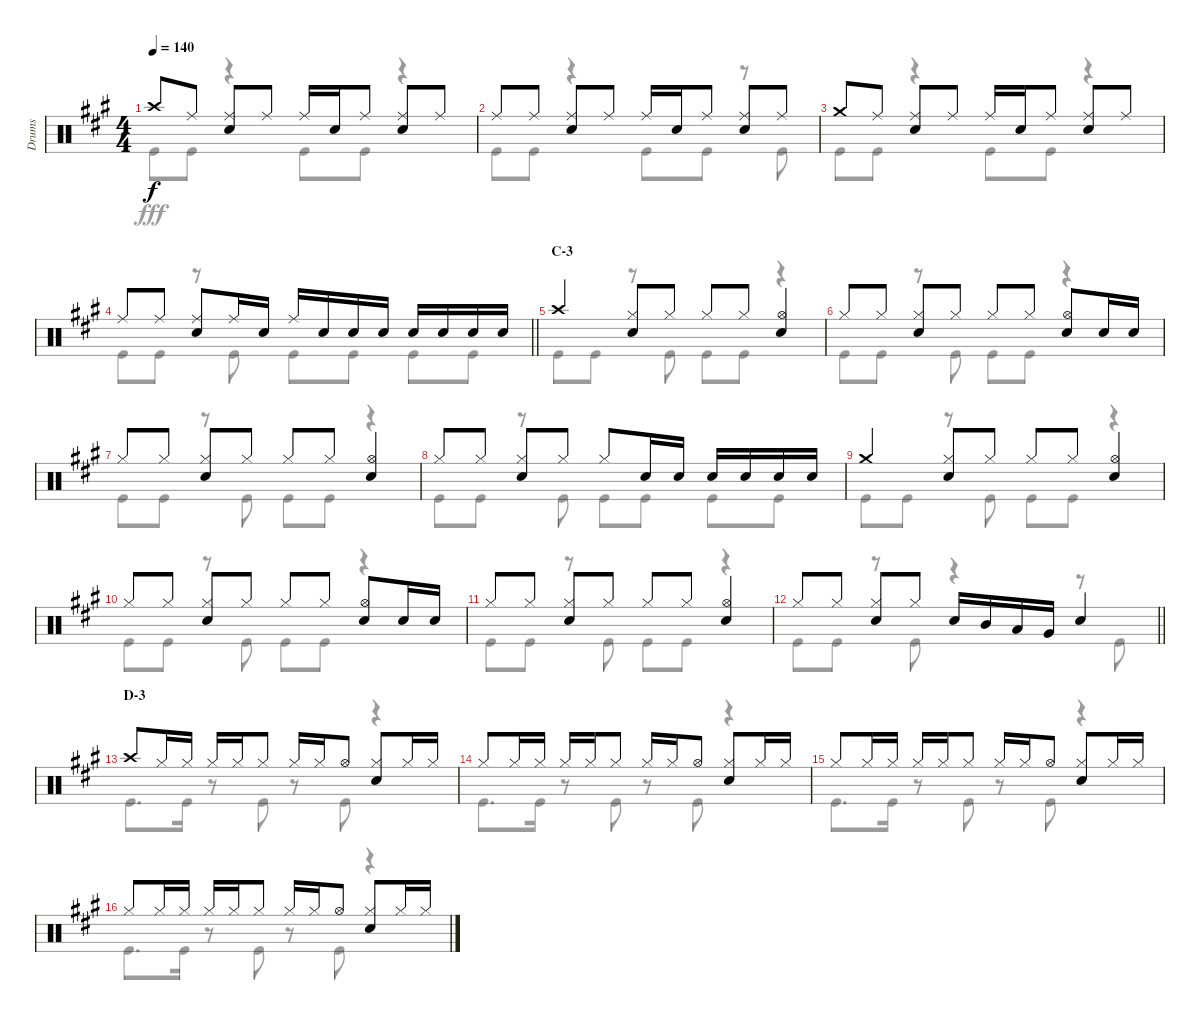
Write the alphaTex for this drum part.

\track ("Drums" "Drums") {instrument percussion}
\staff {score}
\articulation defaults
\voice
\ts (4 4)
\tempo 140
\clef neutral
\ks a "Crash high (hit)".8{dy f} "Ride (middle)".8
("Ride (middle)" "Snare (hit) 2").8 "Ride (middle)".8 "Ride (middle)".16 "Snare (hit) 2".16 "Ride (middle)".8 ("Ride (middle)" "Snare (hit) 2").8 "Ride (middle)".8 |
"Ride (middle)".8 "Ride (middle)".8 ("Ride (middle)" "Snare (hit) 2").8 "Ride (middle)".8 "Ride (middle)".16 "Snare (hit) 2".16 "Ride (middle)".8 ("Ride (middle)" "Snare (hit) 2").8 "Ride (middle)".8 |
"Crash medium (hit)".8 "Ride (middle)".8 ("Ride (middle)" "Snare (hit) 2").8 "Ride (middle)".8 "Ride (middle)".16 "Snare (hit) 2".16 "Ride (middle)".8 ("Ride (middle)" "Snare (hit) 2").8 "Ride (middle)".8 |
\barLineRight lightlight "Ride (middle)".8 "Ride (middle)".8
("Ride (middle)" "Snare (hit) 2").8 "Ride (middle)".16 "Snare (hit) 2".16 "Ride (middle)".16 "Snare (hit) 2".16 "Snare (hit) 2".16 "Snare (hit) 2".16 "Snare (hit) 2".16 "Snare (hit) 2".16 "Snare (hit) 2".16 "Snare (hit) 2".16 |
\section ("" "C-3")
"Crash high (hit)".4 ("Hi-Hat (closed)" "Snare (hit) 2").8 "Hi-Hat (closed)".8 "Hi-Hat (closed)".8 "Hi-Hat (closed)".8 ("Hi-Hat (open)" "Snare (hit) 2").4 |
"Hi-Hat (closed)".8 "Hi-Hat (closed)".8 ("Hi-Hat (closed)" "Snare (hit) 2").8 "Hi-Hat (closed)".8 "Hi-Hat (closed)".8 "Hi-Hat (closed)".8 ("Hi-Hat (open)" "Snare (hit) 2").8 "Snare (hit) 2".16 "Snare (hit) 2".16 |
"Hi-Hat (closed)".8 "Hi-Hat (closed)".8 ("Hi-Hat (closed)" "Snare (hit) 2").8 "Hi-Hat (closed)".8 "Hi-Hat (closed)".8 "Hi-Hat (closed)".8 ("Hi-Hat (open)" "Snare (hit) 2").4 |
"Hi-Hat (closed)".8 "Hi-Hat (closed)".8 ("Hi-Hat (closed)" "Snare (hit) 2").8 "Hi-Hat (closed)".8 "Hi-Hat (closed)".8 "Snare (hit) 2".16 "Snare (hit) 2".16 "Snare (hit) 2".16 "Snare (hit) 2".16 "Snare (hit) 2".16 "Snare (hit) 2".16 |
"Crash medium (hit)".4 ("Hi-Hat (closed)" "Snare (hit) 2").8 "Hi-Hat (closed)".8 "Hi-Hat (closed)".8 "Hi-Hat (closed)".8 ("Hi-Hat (open)" "Snare (hit) 2").4 |
"Hi-Hat (closed)".8 "Hi-Hat (closed)".8 ("Hi-Hat (closed)" "Snare (hit) 2").8 "Hi-Hat (closed)".8 "Hi-Hat (closed)".8 "Hi-Hat (closed)".8 ("Hi-Hat (open)" "Snare (hit) 2").8 "Snare (hit) 2".16 "Snare (hit) 2".16 |
"Hi-Hat (closed)".8 "Hi-Hat (closed)".8 ("Hi-Hat (closed)" "Snare (hit) 2").8 "Hi-Hat (closed)".8 "Hi-Hat (closed)".8 "Hi-Hat (closed)".8 ("Hi-Hat (open)" "Snare (hit) 2").4 |
\barLineRight lightlight "Hi-Hat (closed)".8 "Hi-Hat (closed)".8
("Hi-Hat (closed)" "Snare (hit) 2").8 "Hi-Hat (closed)".8 "Snare (hit) 2".16 "Mid Tom (hit)".16 "Low Tom (hit)".16 "Very Low Tom (hit)".16 "Snare (hit) 2".4 |
\section ("" "D-3")
"Crash high (hit)".8 "Hi-Hat (closed)".16 "Hi-Hat (closed)".16 "Hi-Hat (closed)".16 "Hi-Hat (closed)".16 "Hi-Hat (closed)".8 "Hi-Hat (closed)".16 "Hi-Hat (closed)".16 "Hi-Hat (open)".8 ("Hi-Hat (closed)" "Snare (hit) 2").8 "Hi-Hat (closed)".16 "Hi-Hat (closed)".16 |
"Hi-Hat (closed)".8 "Hi-Hat (closed)".16 "Hi-Hat (closed)".16 "Hi-Hat (closed)".16 "Hi-Hat (closed)".16 "Hi-Hat (closed)".8 "Hi-Hat (closed)".16 "Hi-Hat (closed)".16 "Hi-Hat (open)".8 ("Hi-Hat (closed)" "Snare (hit) 2").8 "Hi-Hat (closed)".16 "Hi-Hat (closed)".16 |
"Hi-Hat (closed)".8 "Hi-Hat (closed)".16 "Hi-Hat (closed)".16 "Hi-Hat (closed)".16 "Hi-Hat (closed)".16 "Hi-Hat (closed)".8 "Hi-Hat (closed)".16 "Hi-Hat (closed)".16 "Hi-Hat (open)".8 ("Hi-Hat (closed)" "Snare (hit) 2").8 "Hi-Hat (closed)".16 "Hi-Hat (closed)".16 |
"Hi-Hat (closed)".8 "Hi-Hat (closed)".16 "Hi-Hat (closed)".16 "Hi-Hat (closed)".16 "Hi-Hat (closed)".16 "Hi-Hat (closed)".8 "Hi-Hat (closed)".16 "Hi-Hat (closed)".16 "Hi-Hat (open)".8 ("Hi-Hat (closed)" "Snare (hit) 2").8 "Hi-Hat (closed)".16 "Hi-Hat (closed)".16
\voice
\clef neutral
\ottava regular
\simile none
\ks a "Kick (hit)".8{dy fff} "Kick (hit)".8
r.4 "Kick (hit)".8 "Kick (hit)".8 r.4 |
"Kick (hit)".8 "Kick (hit)".8 r.4 "Kick (hit)".8 "Kick (hit)".8 r.8 "Kick (hit)".8 |
"Kick (hit)".8 "Kick (hit)".8 r.4 "Kick (hit)".8 "Kick (hit)".8 r.4 |
\barLineRight lightlight "Kick (hit)".8 "Kick (hit)".8
r.8 "Kick (hit)".8 "Kick (hit)".8 "Kick (hit)".8 "Kick (hit)".8 "Kick (hit)".8 |
"Kick (hit)".8 "Kick (hit)".8 r.8 "Kick (hit)".8 "Kick (hit)".8 "Kick (hit)".8 r.4 |
"Kick (hit)".8 "Kick (hit)".8 r.8 "Kick (hit)".8 "Kick (hit)".8 "Kick (hit)".8 r.4 |
"Kick (hit)".8 "Kick (hit)".8 r.8 "Kick (hit)".8 "Kick (hit)".8 "Kick (hit)".8 r.4 |
"Kick (hit)".8 "Kick (hit)".8 r.8 "Kick (hit)".8 "Kick (hit)".8 "Kick (hit)".8 "Kick (hit)".8 "Kick (hit)".8 |
"Kick (hit)".8 "Kick (hit)".8 r.8 "Kick (hit)".8 "Kick (hit)".8 "Kick (hit)".8 r.4 |
"Kick (hit)".8 "Kick (hit)".8 r.8 "Kick (hit)".8 "Kick (hit)".8 "Kick (hit)".8 r.4 |
"Kick (hit)".8 "Kick (hit)".8 r.8 "Kick (hit)".8 "Kick (hit)".8 "Kick (hit)".8 r.4 |
\barLineRight lightlight "Kick (hit)".8 "Kick (hit)".8
r.8 "Kick (hit)".8 r.4 r.8 "Kick (hit)".8 |
"Kick (hit)".8{d} "Kick (hit)".16 r.8 "Kick (hit)".8 r.8 "Kick (hit)".8 r.4 |
"Kick (hit)".8{d} "Kick (hit)".16 r.8 "Kick (hit)".8 r.8 "Kick (hit)".8 r.4 |
"Kick (hit)".8{d} "Kick (hit)".16 r.8 "Kick (hit)".8 r.8 "Kick (hit)".8 r.4 |
"Kick (hit)".8{d} "Kick (hit)".16 r.8 "Kick (hit)".8 r.8 "Kick (hit)".8 r.4
